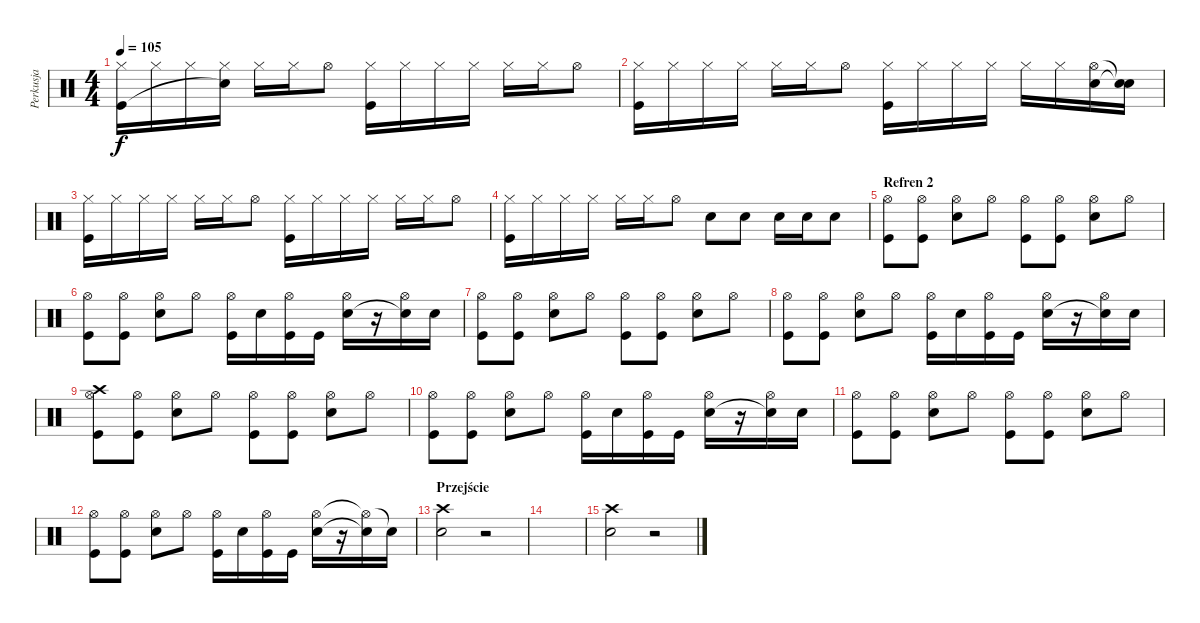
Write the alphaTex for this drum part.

\track ("Perkusja" "Perkusja") {instrument percussion}
\staff {score}
\articulation defaults
\ts (4 4)
\tempo 105
\clef neutral
\ks c
("Hi-Hat (closed)" "Kick (hit)").16{dy f} "Hi-Hat (closed)".16 "Hi-Hat (closed)".16 ("Hi-Hat (closed)" "Snare (hit)"{t}).16 "Hi-Hat (closed)".16 "Hi-Hat (closed)".16 "Hi-Hat (open)".8 ("Hi-Hat (closed)" "Kick (hit)").16 "Hi-Hat (closed)".16 "Hi-Hat (closed)".16 "Hi-Hat (closed)".16 "Hi-Hat (closed)".16 "Hi-Hat (closed)".16 "Hi-Hat (open)".8 |
("Hi-Hat (closed)" "Kick (hit)").16 "Hi-Hat (closed)".16 "Hi-Hat (closed)".16 "Hi-Hat (closed)".16 "Hi-Hat (closed)".16 "Hi-Hat (closed)".16 "Hi-Hat (open)".8 ("Hi-Hat (closed)" "Kick (hit)").16 "Hi-Hat (closed)".16 "Hi-Hat (closed)".16 "Hi-Hat (closed)".16 "Hi-Hat (closed)".16 "Hi-Hat (closed)".16 ("Hi-Hat (open)" "Snare (hit) 2").16 ("Snare (hit)"{t} "Snare (hit) 2"{t}).16 |
("Hi-Hat (closed)" "Kick (hit)").16 "Hi-Hat (closed)".16 "Hi-Hat (closed)".16 "Hi-Hat (closed)".16 "Hi-Hat (closed)".16 "Hi-Hat (closed)".16 "Hi-Hat (open)".8 ("Hi-Hat (closed)" "Kick (hit)").16 "Hi-Hat (closed)".16 "Hi-Hat (closed)".16 "Hi-Hat (closed)".16 "Hi-Hat (closed)".16 "Hi-Hat (closed)".16 "Hi-Hat (open)".8 |
("Hi-Hat (closed)" "Kick (hit)").16 "Hi-Hat (closed)".16 "Hi-Hat (closed)".16 "Hi-Hat (closed)".16 "Hi-Hat (closed)".16 "Hi-Hat (closed)".16 "Hi-Hat (open)".8 "Snare (hit) 2".8 "Snare (hit) 2".8 "Snare (hit) 2".16 "Snare (hit) 2".16 "Snare (hit) 2".8 |
\section ("" "Refren 2")
("Hi-Hat (open)" "Kick (hit)").8 ("Hi-Hat (open)" "Kick (hit)").8 ("Hi-Hat (open)" "Snare (hit) 2").8 "Hi-Hat (open)".8 ("Hi-Hat (open)" "Kick (hit)").8 ("Hi-Hat (open)" "Kick (hit)").8 ("Hi-Hat (open)" "Snare (hit) 2").8 "Hi-Hat (open)".8 |
("Hi-Hat (open)" "Kick (hit)").8 ("Hi-Hat (open)" "Kick (hit)").8 ("Hi-Hat (open)" "Snare (hit) 2").8 "Hi-Hat (open)".8 ("Hi-Hat (open)" "Kick (hit)").16 "Snare (hit) 2".16 ("Hi-Hat (open)" "Kick (hit)").16 "Kick (hit)".16 ("Hi-Hat (open)" "Snare (hit) 2").16 r.16 ("Hi-Hat (open)" "Snare (hit)"{t}).16 "Snare (hit) 2".16 |
("Hi-Hat (open)" "Kick (hit)").8 ("Hi-Hat (open)" "Kick (hit)").8 ("Hi-Hat (open)" "Snare (hit) 2").8 "Hi-Hat (open)".8 ("Hi-Hat (open)" "Kick (hit)").8 ("Hi-Hat (open)" "Kick (hit)").8 ("Hi-Hat (open)" "Snare (hit) 2").8 "Hi-Hat (open)".8 |
("Hi-Hat (open)" "Kick (hit)").8 ("Hi-Hat (open)" "Kick (hit)").8 ("Hi-Hat (open)" "Snare (hit) 2").8 "Hi-Hat (open)".8 ("Hi-Hat (open)" "Kick (hit)").16 "Snare (hit) 2".16 ("Hi-Hat (open)" "Kick (hit)").16 "Kick (hit)".16 ("Hi-Hat (open)" "Snare (hit) 2").16 r.16 ("Hi-Hat (open)" "Snare (hit)"{t}).16 "Snare (hit) 2".16 |
("Hi-Hat (open)" "Crash high (hit)" "Kick (hit)").8 ("Hi-Hat (open)" "Kick (hit)").8 ("Hi-Hat (open)" "Snare (hit) 2").8 "Hi-Hat (open)".8 ("Hi-Hat (open)" "Kick (hit)").8 ("Hi-Hat (open)" "Kick (hit)").8 ("Hi-Hat (open)" "Snare (hit) 2").8 "Hi-Hat (open)".8 |
("Hi-Hat (open)" "Kick (hit)").8 ("Hi-Hat (open)" "Kick (hit)").8 ("Hi-Hat (open)" "Snare (hit) 2").8 "Hi-Hat (open)".8 ("Hi-Hat (open)" "Kick (hit)").16 "Snare (hit) 2".16 ("Hi-Hat (open)" "Kick (hit)").16 "Kick (hit)".16 ("Hi-Hat (open)" "Snare (hit) 2").16 r.16 ("Hi-Hat (open)" "Snare (hit)"{t}).16 "Snare (hit) 2".16 |
("Hi-Hat (open)" "Kick (hit)").8 ("Hi-Hat (open)" "Kick (hit)").8 ("Hi-Hat (open)" "Snare (hit) 2").8 "Hi-Hat (open)".8 ("Hi-Hat (open)" "Kick (hit)").8 ("Hi-Hat (open)" "Kick (hit)").8 ("Hi-Hat (open)" "Snare (hit) 2").8 "Hi-Hat (open)".8 |
("Hi-Hat (open)" "Kick (hit)").8 ("Hi-Hat (open)" "Kick (hit)").8 ("Hi-Hat (open)" "Snare (hit) 2").8 "Hi-Hat (open)".8 ("Hi-Hat (open)" "Kick (hit)").16 "Snare (hit) 2".16 ("Hi-Hat (open)" "Kick (hit)").16 "Kick (hit)".16 ("Hi-Hat (open)" "Snare (hit) 2").16 r.16 ("Hi-Hat (open)"{t} "Snare (hit)"{t}).16 "Snare (hit) 2"{t}.16 |
\section ("" "Przejście")
("Crash high (hit)" "Snare (hit) 2").2 r.2 |
|
("Crash high (hit)" "Snare (hit) 2").2 r.2
